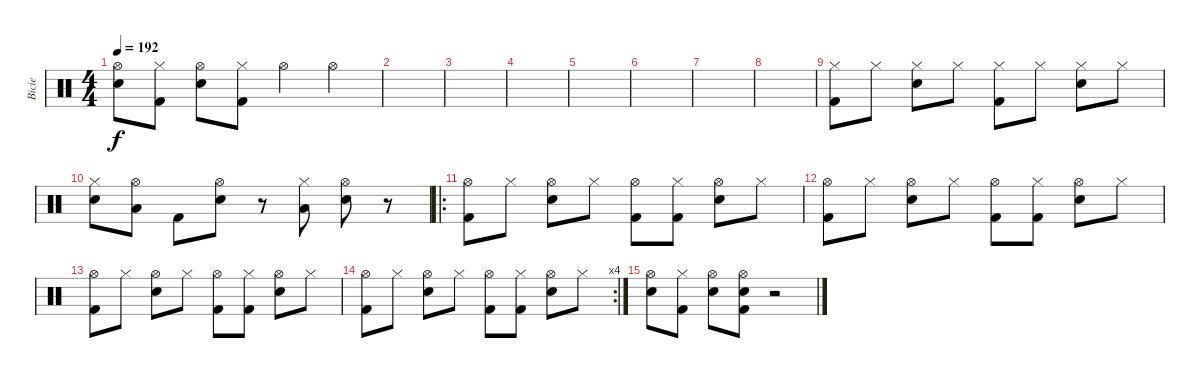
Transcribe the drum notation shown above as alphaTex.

\track ("Bicie" "Bicie") {instrument percussion}
\staff {score}
\articulation defaults
\ts (4 4)
\tempo 192
\clef neutral
\ks c
("Hi-Hat (open)" "Electric Snare (hit)").8{dy f} ("Hi-Hat (closed)" "Kick (hit) 2").8 ("Hi-Hat (open)" "Electric Snare (hit)").8 ("Hi-Hat (closed)" "Kick (hit) 2").8 "Hi-Hat (open)".4 "Hi-Hat (open)".4 |
|
|
|
|
|
|
|
("Hi-Hat (closed)" "Kick (hit) 2").8 "Hi-Hat (closed)".8 ("Hi-Hat (closed)" "Electric Snare (hit)").8 "Hi-Hat (closed)".8 ("Hi-Hat (closed)" "Kick (hit) 2").8 "Hi-Hat (closed)".8 ("Hi-Hat (closed)" "Electric Snare (hit)").8 "Hi-Hat (closed)".8 |
("Hi-Hat (closed)" "Electric Snare (hit)").8 ("Hi-Hat (open)" "Low Tom (hit)").8 "Kick (hit) 2".8 ("Hi-Hat (open)" "Electric Snare (hit)").8 r.8 ("Hi-Hat (closed)" "Low Tom (hit)").8 ("Hi-Hat (open)" "Electric Snare (hit)").8 r.8 |
\ro
("Hi-Hat (open)" "Kick (hit) 2").8 "Hi-Hat (closed)".8 ("Hi-Hat (open)" "Electric Snare (hit)").8 "Hi-Hat (closed)".8 ("Hi-Hat (open)" "Kick (hit) 2").8 ("Hi-Hat (closed)" "Kick (hit) 2").8 ("Hi-Hat (open)" "Electric Snare (hit)").8 "Hi-Hat (closed)".8 |
("Hi-Hat (open)" "Kick (hit) 2").8 "Hi-Hat (closed)".8 ("Hi-Hat (open)" "Electric Snare (hit)").8 "Hi-Hat (closed)".8 ("Hi-Hat (open)" "Kick (hit) 2").8 ("Hi-Hat (closed)" "Kick (hit) 2").8 ("Hi-Hat (open)" "Electric Snare (hit)").8 "Hi-Hat (closed)".8 |
("Hi-Hat (open)" "Kick (hit) 2").8 "Hi-Hat (closed)".8 ("Hi-Hat (open)" "Electric Snare (hit)").8 "Hi-Hat (closed)".8 ("Hi-Hat (open)" "Kick (hit) 2").8 ("Hi-Hat (closed)" "Kick (hit) 2").8 ("Hi-Hat (open)" "Electric Snare (hit)").8 "Hi-Hat (closed)".8 |
\rc 4
("Hi-Hat (open)" "Kick (hit) 2").8 "Hi-Hat (closed)".8 ("Hi-Hat (open)" "Electric Snare (hit)").8 "Hi-Hat (closed)".8 ("Hi-Hat (open)" "Kick (hit) 2").8 ("Hi-Hat (closed)" "Kick (hit) 2").8 ("Hi-Hat (open)" "Electric Snare (hit)").8 "Hi-Hat (closed)".8 |
("Hi-Hat (open)" "Electric Snare (hit)").8 ("Hi-Hat (closed)" "Kick (hit) 2").8 ("Hi-Hat (open)" "Electric Snare (hit)").8 ("Hi-Hat (open)" "Electric Snare (hit)" "Kick (hit) 2").8 r.2
